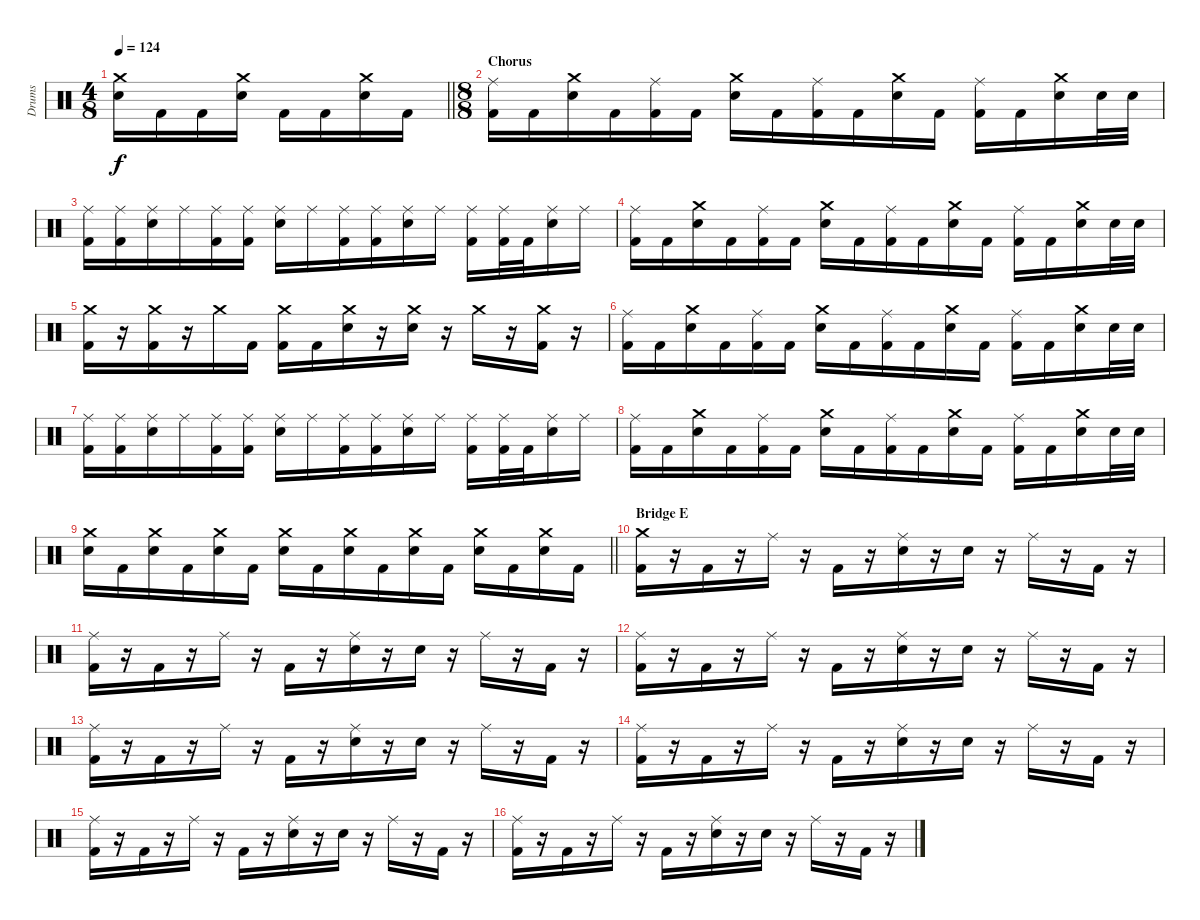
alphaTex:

\track ("Drums" "Drums") {instrument percussion}
\staff {score}
\articulation defaults
\ts (4 8)
\tempo 124
\clef neutral
\barLineRight lightlight
\ks c
("Crash medium (hit)" "Electric Snare (hit)").16{dy f} "Kick (hit) 2".16 "Kick (hit) 2".16 ("Crash medium (hit)" "Electric Snare (hit)").16 "Kick (hit) 2".16 "Kick (hit) 2".16 ("Crash medium (hit)" "Electric Snare (hit)").16 "Kick (hit) 2".16 |
\ts (8 8)
\section ("" "Chorus")
("Ride (middle)" "Kick (hit) 2").16 "Kick (hit) 2".16 ("Crash medium (hit)" "Electric Snare (hit)").16 "Kick (hit) 2".16 ("Ride (middle)" "Kick (hit) 2").16 "Kick (hit) 2".16 ("Crash medium (hit)" "Electric Snare (hit)").16 "Kick (hit) 2".16 ("Ride (middle)" "Kick (hit) 2").16 "Kick (hit) 2".16 ("Crash medium (hit)" "Electric Snare (hit)").16 "Kick (hit) 2".16 ("Ride (middle)" "Kick (hit) 2").16 "Kick (hit) 2".16 ("Crash medium (hit)" "Electric Snare (hit)").16 "Electric Snare (hit)".32 "Electric Snare (hit)".32 |
("Ride (middle)" "Kick (hit) 2").16 ("Ride (middle)" "Kick (hit) 2").16 ("Ride (middle)" "Electric Snare (hit)").16 "Ride (middle)".16 ("Ride (middle)" "Kick (hit) 2").16 ("Ride (middle)" "Kick (hit) 2").16 ("Ride (middle)" "Electric Snare (hit)").16 "Ride (middle)".16 ("Ride (middle)" "Kick (hit) 2").16 ("Ride (middle)" "Kick (hit) 2").16 ("Ride (middle)" "Electric Snare (hit)").16 "Ride (middle)".16 ("Ride (middle)" "Kick (hit) 2").16 ("Ride (middle)" "Kick (hit) 2").32 "Kick (hit) 2".32 ("Ride (middle)" "Electric Snare (hit)").16 "Ride (middle)".16 |
("Ride (middle)" "Kick (hit) 2").16 "Kick (hit) 2".16 ("Crash medium (hit)" "Electric Snare (hit)").16 "Kick (hit) 2".16 ("Ride (middle)" "Kick (hit) 2").16 "Kick (hit) 2".16 ("Crash medium (hit)" "Electric Snare (hit)").16 "Kick (hit) 2".16 ("Ride (middle)" "Kick (hit) 2").16 "Kick (hit) 2".16 ("Crash medium (hit)" "Electric Snare (hit)").16 "Kick (hit) 2".16 ("Ride (middle)" "Kick (hit) 2").16 "Kick (hit) 2".16 ("Crash medium (hit)" "Electric Snare (hit)").16 "Electric Snare (hit)".32 "Electric Snare (hit)".32 |
("Crash medium (hit)" "Kick (hit) 2").16 r.16 ("Crash medium (hit)" "Kick (hit) 2").16 r.16 "Crash medium (hit)".16 "Kick (hit) 2".16 ("Crash medium (hit)" "Kick (hit) 2").16 "Kick (hit) 2".16 ("Crash medium (hit)" "Electric Snare (hit)").16 r.16 ("Crash medium (hit)" "Electric Snare (hit)").16 r.16 "Crash medium (hit)".16 r.16 ("Crash medium (hit)" "Kick (hit) 2").16 r.16 |
("Ride (middle)" "Kick (hit) 2").16 "Kick (hit) 2".16 ("Crash medium (hit)" "Electric Snare (hit)").16 "Kick (hit) 2".16 ("Ride (middle)" "Kick (hit) 2").16 "Kick (hit) 2".16 ("Crash medium (hit)" "Electric Snare (hit)").16 "Kick (hit) 2".16 ("Ride (middle)" "Kick (hit) 2").16 "Kick (hit) 2".16 ("Crash medium (hit)" "Electric Snare (hit)").16 "Kick (hit) 2".16 ("Ride (middle)" "Kick (hit) 2").16 "Kick (hit) 2".16 ("Crash medium (hit)" "Electric Snare (hit)").16 "Electric Snare (hit)".32 "Electric Snare (hit)".32 |
("Ride (middle)" "Kick (hit) 2").16 ("Ride (middle)" "Kick (hit) 2").16 ("Ride (middle)" "Electric Snare (hit)").16 "Ride (middle)".16 ("Ride (middle)" "Kick (hit) 2").16 ("Ride (middle)" "Kick (hit) 2").16 ("Ride (middle)" "Electric Snare (hit)").16 "Ride (middle)".16 ("Ride (middle)" "Kick (hit) 2").16 ("Ride (middle)" "Kick (hit) 2").16 ("Ride (middle)" "Electric Snare (hit)").16 "Ride (middle)".16 ("Ride (middle)" "Kick (hit) 2").16 ("Ride (middle)" "Kick (hit) 2").32 "Kick (hit) 2".32 ("Ride (middle)" "Electric Snare (hit)").16 "Ride (middle)".16 |
("Ride (middle)" "Kick (hit) 2").16 "Kick (hit) 2".16 ("Crash medium (hit)" "Electric Snare (hit)").16 "Kick (hit) 2".16 ("Ride (middle)" "Kick (hit) 2").16 "Kick (hit) 2".16 ("Crash medium (hit)" "Electric Snare (hit)").16 "Kick (hit) 2".16 ("Ride (middle)" "Kick (hit) 2").16 "Kick (hit) 2".16 ("Crash medium (hit)" "Electric Snare (hit)").16 "Kick (hit) 2".16 ("Ride (middle)" "Kick (hit) 2").16 "Kick (hit) 2".16 ("Crash medium (hit)" "Electric Snare (hit)").16 "Electric Snare (hit)".32 "Electric Snare (hit)".32 |
\barLineRight lightlight
("Crash medium (hit)" "Electric Snare (hit)").16 "Kick (hit) 2".16 ("Crash medium (hit)" "Electric Snare (hit)").16 "Kick (hit) 2".16 ("Crash medium (hit)" "Electric Snare (hit)").16 "Kick (hit) 2".16 ("Crash medium (hit)" "Electric Snare (hit)").16 "Kick (hit) 2".16 ("Crash medium (hit)" "Electric Snare (hit)").16 "Kick (hit) 2".16 ("Crash medium (hit)" "Electric Snare (hit)").16 "Kick (hit) 2".16 ("Crash medium (hit)" "Electric Snare (hit)").16 "Kick (hit) 2".16 ("Crash medium (hit)" "Electric Snare (hit)").16 "Kick (hit) 2".16 |
\section ("" "Bridge E")
("Crash medium (hit)" "Kick (hit) 2").16 r.16 "Kick (hit) 2".16 r.16 "Ride (middle)".16 r.16 "Kick (hit) 2".16 r.16 ("Ride (middle)" "Electric Snare (hit)").16 r.16 "Electric Snare (hit)".16 r.16 "Ride (middle)".16 r.16 "Kick (hit) 2".16 r.16 |
("Ride (middle)" "Kick (hit) 2").16 r.16 "Kick (hit) 2".16 r.16 "Ride (middle)".16 r.16 "Kick (hit) 2".16 r.16 ("Ride (middle)" "Electric Snare (hit)").16 r.16 "Electric Snare (hit)".16 r.16 "Ride (middle)".16 r.16 "Kick (hit) 2".16 r.16 |
("Ride (middle)" "Kick (hit) 2").16 r.16 "Kick (hit) 2".16 r.16 "Ride (middle)".16 r.16 "Kick (hit) 2".16 r.16 ("Ride (middle)" "Electric Snare (hit)").16 r.16 "Electric Snare (hit)".16 r.16 "Ride (middle)".16 r.16 "Kick (hit) 2".16 r.16 |
("Ride (middle)" "Kick (hit) 2").16 r.16 "Kick (hit) 2".16 r.16 "Ride (middle)".16 r.16 "Kick (hit) 2".16 r.16 ("Ride (middle)" "Electric Snare (hit)").16 r.16 "Electric Snare (hit)".16 r.16 "Ride (middle)".16 r.16 "Kick (hit) 2".16 r.16 |
("Ride (middle)" "Kick (hit) 2").16 r.16 "Kick (hit) 2".16 r.16 "Ride (middle)".16 r.16 "Kick (hit) 2".16 r.16 ("Ride (middle)" "Electric Snare (hit)").16 r.16 "Electric Snare (hit)".16 r.16 "Ride (middle)".16 r.16 "Kick (hit) 2".16 r.16 |
("Ride (middle)" "Kick (hit) 2").16 r.16 "Kick (hit) 2".16 r.16 "Ride (middle)".16 r.16 "Kick (hit) 2".16 r.16 ("Ride (middle)" "Electric Snare (hit)").16 r.16 "Electric Snare (hit)".16 r.16 "Ride (middle)".16 r.16 "Kick (hit) 2".16 r.16 |
("Ride (middle)" "Kick (hit) 2").16 r.16 "Kick (hit) 2".16 r.16 "Ride (middle)".16 r.16 "Kick (hit) 2".16 r.16 ("Ride (middle)" "Electric Snare (hit)").16 r.16 "Electric Snare (hit)".16 r.16 "Ride (middle)".16 r.16 "Kick (hit) 2".16 r.16
